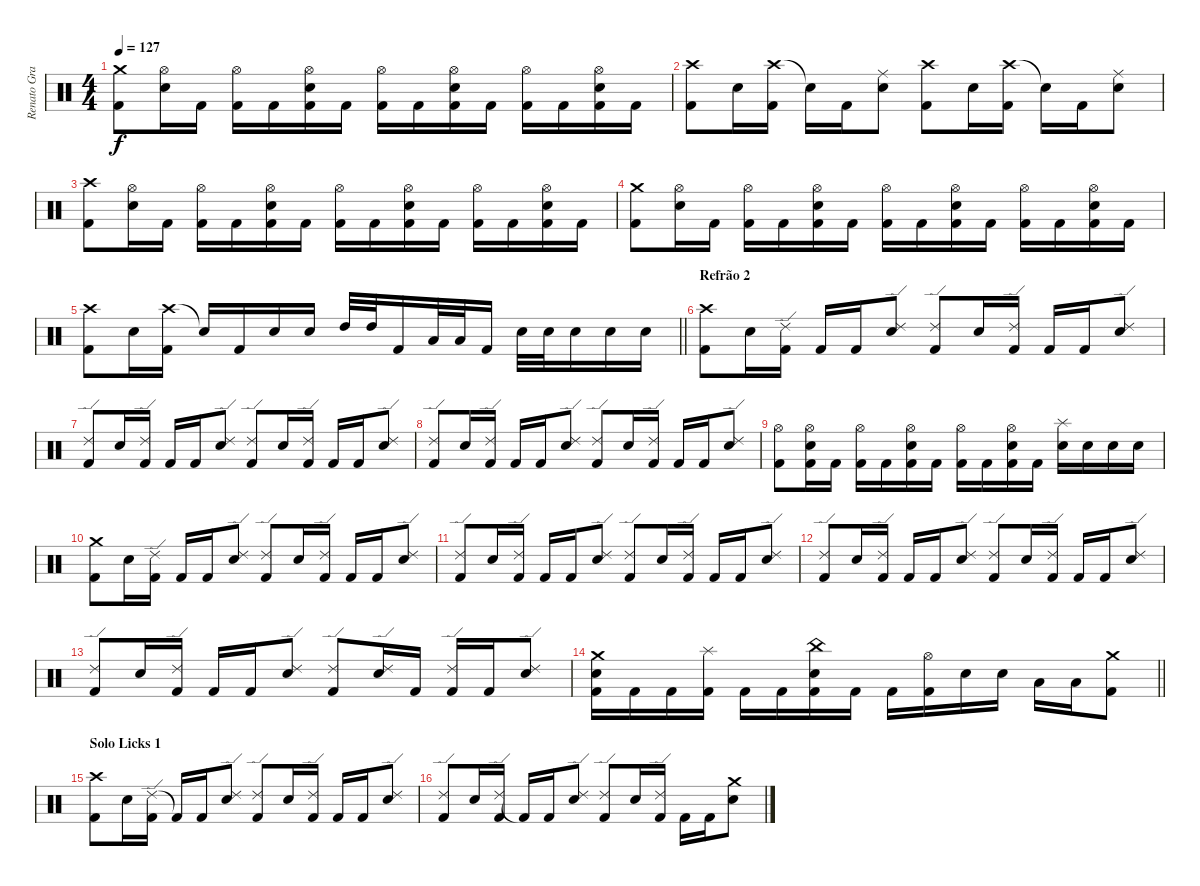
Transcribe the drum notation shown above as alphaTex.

\track ("Renato Graccia (drums)" "Renato Gra") {instrument percussion}
\staff {score}
\articulation defaults
\ts (4 4)
\tempo 127
\clef neutral
\ks c
("Crash medium (hit)" "Kick (hit) 2").8{dy f} ("Hi-Hat (open)" "Snare (hit) 2").16 "Kick (hit) 2".16 ("Hi-Hat (open)" "Kick (hit) 2").16 "Kick (hit) 2".16 ("Hi-Hat (open)" "Snare (hit) 2" "Kick (hit) 2").16 "Kick (hit) 2".16 ("Hi-Hat (open)" "Kick (hit) 2").16 "Kick (hit) 2".16 ("Hi-Hat (open)" "Snare (hit) 2" "Kick (hit) 2").16 "Kick (hit) 2".16 ("Hi-Hat (open)" "Kick (hit) 2").16 "Kick (hit) 2".16 ("Hi-Hat (open)" "Snare (hit) 2" "Kick (hit) 2").16 "Kick (hit) 2".16 |
("Crash high (hit)" "Kick (hit) 2").8 "Snare (hit) 2".16 ("Crash high (hit)" "Kick (hit) 2").16 "Snare (hit)"{t}.16 "Kick (hit) 2".16 ("Ride (middle)" "Snare (hit) 2").8 ("Crash high (hit)" "Kick (hit) 2").8 "Snare (hit) 2".16 ("Crash high (hit)" "Kick (hit) 2").16 "Snare (hit)"{t}.16 "Kick (hit) 2".16 ("Ride (middle)" "Snare (hit) 2").8 |
("Crash high (hit)" "Kick (hit) 2").8 ("Hi-Hat (open)" "Snare (hit) 2").16 "Kick (hit) 2".16 ("Hi-Hat (open)" "Kick (hit) 2").16 "Kick (hit) 2".16 ("Hi-Hat (open)" "Snare (hit) 2" "Kick (hit) 2").16 "Kick (hit) 2".16 ("Hi-Hat (open)" "Kick (hit) 2").16 "Kick (hit) 2".16 ("Hi-Hat (open)" "Snare (hit) 2" "Kick (hit) 2").16 "Kick (hit) 2".16 ("Hi-Hat (open)" "Kick (hit) 2").16 "Kick (hit) 2".16 ("Hi-Hat (open)" "Snare (hit) 2" "Kick (hit) 2").16 "Kick (hit) 2".16 |
("Crash medium (hit)" "Kick (hit) 2").8 ("Hi-Hat (open)" "Snare (hit) 2").16 "Kick (hit) 2".16 ("Hi-Hat (open)" "Kick (hit) 2").16 "Kick (hit) 2".16 ("Hi-Hat (open)" "Snare (hit) 2" "Kick (hit) 2").16 "Kick (hit) 2".16 ("Hi-Hat (open)" "Kick (hit) 2").16 "Kick (hit) 2".16 ("Hi-Hat (open)" "Snare (hit) 2" "Kick (hit) 2").16 "Kick (hit) 2".16 ("Hi-Hat (open)" "Kick (hit) 2").16 "Kick (hit) 2".16 ("Hi-Hat (open)" "Snare (hit) 2" "Kick (hit) 2").16 "Kick (hit) 2".16 |
\barLineRight lightlight
("Crash high (hit)" "Kick (hit) 2").8 "Snare (hit) 2".16 ("Crash high (hit)" "Kick (hit) 2").16 "Snare (hit)"{t}.16 "Kick (hit) 2".16 "Snare (hit) 2".16 "Snare (hit) 2".16 "High Tom (hit)".32 "High Tom (hit)".32 "Kick (hit) 2".16 "Low Tom (hit)".32 "Low Tom (hit)".32 "Kick (hit) 2".16 "Snare (hit) 2".32 "Snare (hit) 2".32 "Snare (hit) 2".16 "Snare (hit) 2".16 "Snare (hit) 2".16 |
\section ("" "Refrão 2")
("Crash high (hit)" "Kick (hit) 2").8 "Snare (hit) 2".16 ("Ride (edge) 2" "Kick (hit) 2").16 "Kick (hit) 2".16 "Kick (hit) 2".16 ("Ride (edge) 2" "Snare (hit) 2").8 ("Ride (edge) 2" "Kick (hit) 2").8 "Snare (hit) 2".16 ("Ride (edge) 2" "Kick (hit) 2").16 "Kick (hit) 2".16 "Kick (hit) 2".16 ("Ride (edge) 2" "Snare (hit) 2").8 |
("Ride (edge) 2" "Kick (hit) 2").8 "Snare (hit) 2".16 ("Ride (edge) 2" "Kick (hit) 2").16 "Kick (hit) 2".16 "Kick (hit) 2".16 ("Ride (edge) 2" "Snare (hit) 2").8 ("Ride (edge) 2" "Kick (hit) 2").8 "Snare (hit) 2".16 ("Ride (edge) 2" "Kick (hit) 2").16 "Kick (hit) 2".16 "Kick (hit) 2".16 ("Ride (edge) 2" "Snare (hit) 2").8 |
("Ride (edge) 2" "Kick (hit) 2").8 "Snare (hit) 2".16 ("Ride (edge) 2" "Kick (hit) 2").16 "Kick (hit) 2".16 "Kick (hit) 2".16 ("Ride (edge) 2" "Snare (hit) 2").8 ("Ride (edge) 2" "Kick (hit) 2").8 "Snare (hit) 2".16 ("Ride (edge) 2" "Kick (hit) 2").16 "Kick (hit) 2".16 "Kick (hit) 2".16 ("Ride (edge) 2" "Snare (hit) 2").8 |
("Hi-Hat (open)" "Kick (hit) 2").8 ("Hi-Hat (open)" "Snare (hit) 2" "Kick (hit) 2").16 "Kick (hit) 2".16 ("Hi-Hat (open)" "Kick (hit) 2").16 "Kick (hit) 2".16 ("Hi-Hat (open)" "Snare (hit) 2" "Kick (hit) 2").16 "Kick (hit) 2".16 ("Hi-Hat (open)" "Kick (hit) 2").16 "Kick (hit) 2".16 ("Hi-Hat (open)" "Snare (hit) 2" "Kick (hit) 2").16 "Kick (hit) 2".16 ("Splash (hit)" "Snare (hit) 2").16 "Snare (hit) 2".16 "Snare (hit) 2".16 "Snare (hit) 2".16 |
("Crash medium (hit)" "Kick (hit) 2").8 "Snare (hit) 2".16 ("Ride (edge) 2" "Kick (hit) 2").16 "Kick (hit) 2".16 "Kick (hit) 2".16 ("Ride (edge) 2" "Snare (hit) 2").8 ("Ride (edge) 2" "Kick (hit) 2").8 "Snare (hit) 2".16 ("Ride (edge) 2" "Kick (hit) 2").16 "Kick (hit) 2".16 "Kick (hit) 2".16 ("Ride (edge) 2" "Snare (hit) 2").8 |
("Ride (edge) 2" "Kick (hit) 2").8 "Snare (hit) 2".16 ("Ride (edge) 2" "Kick (hit) 2").16 "Kick (hit) 2".16 "Kick (hit) 2".16 ("Ride (edge) 2" "Snare (hit) 2").8 ("Ride (edge) 2" "Kick (hit) 2").8 "Snare (hit) 2".16 ("Ride (edge) 2" "Kick (hit) 2").16 "Kick (hit) 2".16 "Kick (hit) 2".16 ("Ride (edge) 2" "Snare (hit) 2").8 |
("Ride (edge) 2" "Kick (hit) 2").8 "Snare (hit) 2".16 ("Ride (edge) 2" "Kick (hit) 2").16 "Kick (hit) 2".16 "Kick (hit) 2".16 ("Ride (edge) 2" "Snare (hit) 2").8 ("Ride (edge) 2" "Kick (hit) 2").8 "Snare (hit) 2".16 ("Ride (edge) 2" "Kick (hit) 2").16 "Kick (hit) 2".16 "Kick (hit) 2".16 ("Ride (edge) 2" "Snare (hit) 2").8 |
("Ride (edge) 2" "Kick (hit) 2").8 "Snare (hit) 2".16 ("Ride (edge) 2" "Kick (hit) 2").16 "Kick (hit) 2".16 "Kick (hit) 2".16 ("Ride (edge) 2" "Snare (hit) 2").8 ("Ride (edge) 2" "Kick (hit) 2").8 ("Ride (edge) 2" "Snare (hit) 2").16 "Kick (hit) 2".16 ("Ride (edge) 2" "Kick (hit) 2").16 "Kick (hit) 2".16 ("Ride (edge) 2" "Snare (hit) 2").8 |
\barLineRight lightlight
("Crash medium (hit)" "Snare (hit) 2" "Kick (hit) 2").16 "Kick (hit) 2".16 "Kick (hit) 2".16 ("Splash (hit)" "Kick (hit) 2").16 "Kick (hit) 2".16 "Kick (hit) 2".16 ("China (hit)" "Snare (hit) 2" "Kick (hit) 2").16 "Kick (hit) 2".16 "Kick (hit) 2".16 ("Hi-Hat (open)" "Kick (hit) 2").16 "Snare (hit) 2".16 "Snare (hit) 2".16 "Low Tom (hit)".16 "Low Tom (hit)".16 ("Crash medium (hit)" "Kick (hit) 2").8 |
\section ("" "Solo Licks 1")
("Crash high (hit)" "Kick (hit) 2").8 "Snare (hit) 2".16 ("Ride (edge) 2" "Kick (hit) 2").16 "Kick (hit) 2"{t}.16 "Kick (hit) 2".16 ("Ride (edge) 2" "Snare (hit) 2").8 ("Ride (edge) 2" "Kick (hit) 2").8 "Snare (hit) 2".16 ("Ride (edge) 2" "Kick (hit) 2").16 "Kick (hit) 2".16 "Kick (hit) 2".16 ("Ride (edge) 2" "Snare (hit) 2").8 |
("Ride (edge) 2" "Kick (hit) 2").8 "Snare (hit) 2".16 ("Ride (edge) 2" "Kick (hit) 2").16 "Kick (hit) 2"{t}.16 "Kick (hit) 2".16 ("Ride (edge) 2" "Snare (hit) 2").8 ("Ride (edge) 2" "Kick (hit) 2").8 "Snare (hit) 2".16 ("Ride (edge) 2" "Kick (hit) 2").16 "Kick (hit) 2".16 "Kick (hit) 2".16 ("Crash medium (hit)" "Snare (hit) 2").8
